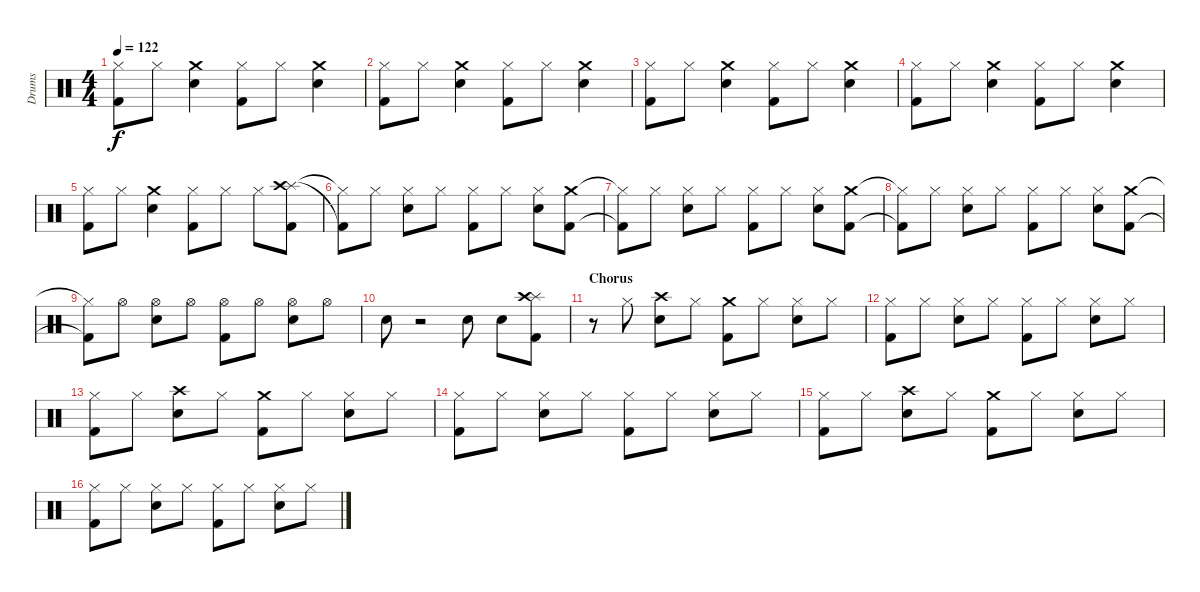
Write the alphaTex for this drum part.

\track ("Drums" "Drums") {instrument percussion}
\staff {score}
\articulation defaults
\ts (4 4)
\tempo 122
\clef neutral
\ks c
("Hi-Hat (closed)" "Kick (hit) 2").8{dy f} "Hi-Hat (closed)".8 ("Crash medium (hit)" "Electric Snare (hit)").4 ("Hi-Hat (closed)" "Kick (hit) 2").8 "Hi-Hat (closed)".8 ("Crash medium (hit)" "Electric Snare (hit)").4 |
("Hi-Hat (closed)" "Kick (hit) 2").8 "Hi-Hat (closed)".8 ("Crash medium (hit)" "Electric Snare (hit)").4 ("Hi-Hat (closed)" "Kick (hit) 2").8 "Hi-Hat (closed)".8 ("Crash medium (hit)" "Electric Snare (hit)").4 |
("Hi-Hat (closed)" "Kick (hit) 2").8 "Hi-Hat (closed)".8 ("Crash medium (hit)" "Electric Snare (hit)").4 ("Hi-Hat (closed)" "Kick (hit) 2").8 "Hi-Hat (closed)".8 ("Crash medium (hit)" "Electric Snare (hit)").4 |
("Hi-Hat (closed)" "Kick (hit) 2").8 "Hi-Hat (closed)".8 ("Crash medium (hit)" "Electric Snare (hit)").4 ("Hi-Hat (closed)" "Kick (hit) 2").8 "Hi-Hat (closed)".8 ("Crash medium (hit)" "Electric Snare (hit)").4 |
("Hi-Hat (closed)" "Kick (hit) 2").8 "Hi-Hat (closed)".8 ("Crash medium (hit)" "Electric Snare (hit)").4 ("Hi-Hat (closed)" "Kick (hit) 2").8 "Hi-Hat (closed)".8 "Hi-Hat (closed)".8 ("Splash (hit)" "Crash high (hit)" "Kick (hit) 2").8 |
("Hi-Hat (closed)"{t} "Kick (hit) 2"{t}).8 "Hi-Hat (closed)".8 ("Hi-Hat (closed)" "Electric Snare (hit)").8 "Hi-Hat (closed)".8 ("Hi-Hat (closed)" "Kick (hit) 2").8 "Hi-Hat (closed)".8 ("Hi-Hat (closed)" "Electric Snare (hit)").8 ("Crash medium (hit)" "Kick (hit) 2").8 |
("Hi-Hat (closed)"{t} "Kick (hit) 2"{t}).8 "Hi-Hat (closed)".8 ("Hi-Hat (closed)" "Electric Snare (hit)").8 "Hi-Hat (closed)".8 ("Hi-Hat (closed)" "Kick (hit) 2").8 "Hi-Hat (closed)".8 ("Hi-Hat (closed)" "Electric Snare (hit)").8 ("Crash medium (hit)" "Kick (hit) 2").8 |
("Hi-Hat (closed)"{t} "Kick (hit) 2"{t}).8 "Hi-Hat (closed)".8 ("Hi-Hat (closed)" "Electric Snare (hit)").8 "Hi-Hat (closed)".8 ("Hi-Hat (closed)" "Kick (hit) 2").8 "Hi-Hat (closed)".8 ("Hi-Hat (closed)" "Electric Snare (hit)").8 ("Crash medium (hit)" "Kick (hit) 2").8 |
("Hi-Hat (closed)"{t} "Kick (hit) 2"{t}).8 "Hi-Hat (open)".8 ("Hi-Hat (open)" "Electric Snare (hit)").8 "Hi-Hat (open)".8 ("Hi-Hat (open)" "Kick (hit) 2").8 "Hi-Hat (open)".8 ("Hi-Hat (open)" "Electric Snare (hit)").8 "Hi-Hat (open)".8 |
"Electric Snare (hit)".8 r.2 "Electric Snare (hit)".8 "Electric Snare (hit)".8 ("Splash (hit)" "Crash high (hit)" "Kick (hit) 2").8 |
\section ("" "Chorus")
r.8 "Hi-Hat (closed)".8 ("Crash high (hit)" "Electric Snare (hit)").8 "Hi-Hat (closed)".8 ("Crash medium (hit)" "Kick (hit) 2").8 "Hi-Hat (closed)".8 ("Hi-Hat (closed)" "Electric Snare (hit)").8 "Hi-Hat (closed)".8 |
("Hi-Hat (closed)" "Kick (hit) 2").8 "Hi-Hat (closed)".8 ("Hi-Hat (closed)" "Electric Snare (hit)").8 "Hi-Hat (closed)".8 ("Hi-Hat (closed)" "Kick (hit) 2").8 "Hi-Hat (closed)".8 ("Hi-Hat (closed)" "Electric Snare (hit)").8 "Hi-Hat (closed)".8 |
("Hi-Hat (closed)" "Kick (hit) 2").8 "Hi-Hat (closed)".8 ("Crash high (hit)" "Electric Snare (hit)").8 "Hi-Hat (closed)".8 ("Crash medium (hit)" "Kick (hit) 2").8 "Hi-Hat (closed)".8 ("Hi-Hat (closed)" "Electric Snare (hit)").8 "Hi-Hat (closed)".8 |
("Hi-Hat (closed)" "Kick (hit) 2").8 "Hi-Hat (closed)".8 ("Hi-Hat (closed)" "Electric Snare (hit)").8 "Hi-Hat (closed)".8 ("Hi-Hat (closed)" "Kick (hit) 2").8 "Hi-Hat (closed)".8 ("Hi-Hat (closed)" "Electric Snare (hit)").8 "Hi-Hat (closed)".8 |
("Hi-Hat (closed)" "Kick (hit) 2").8 "Hi-Hat (closed)".8 ("Crash high (hit)" "Electric Snare (hit)").8 "Hi-Hat (closed)".8 ("Crash medium (hit)" "Kick (hit) 2").8 "Hi-Hat (closed)".8 ("Hi-Hat (closed)" "Electric Snare (hit)").8 "Hi-Hat (closed)".8 |
("Hi-Hat (closed)" "Kick (hit) 2").8 "Hi-Hat (closed)".8 ("Hi-Hat (closed)" "Electric Snare (hit)").8 "Hi-Hat (closed)".8 ("Hi-Hat (closed)" "Kick (hit) 2").8 "Hi-Hat (closed)".8 ("Hi-Hat (closed)" "Electric Snare (hit)").8 "Hi-Hat (closed)".8
